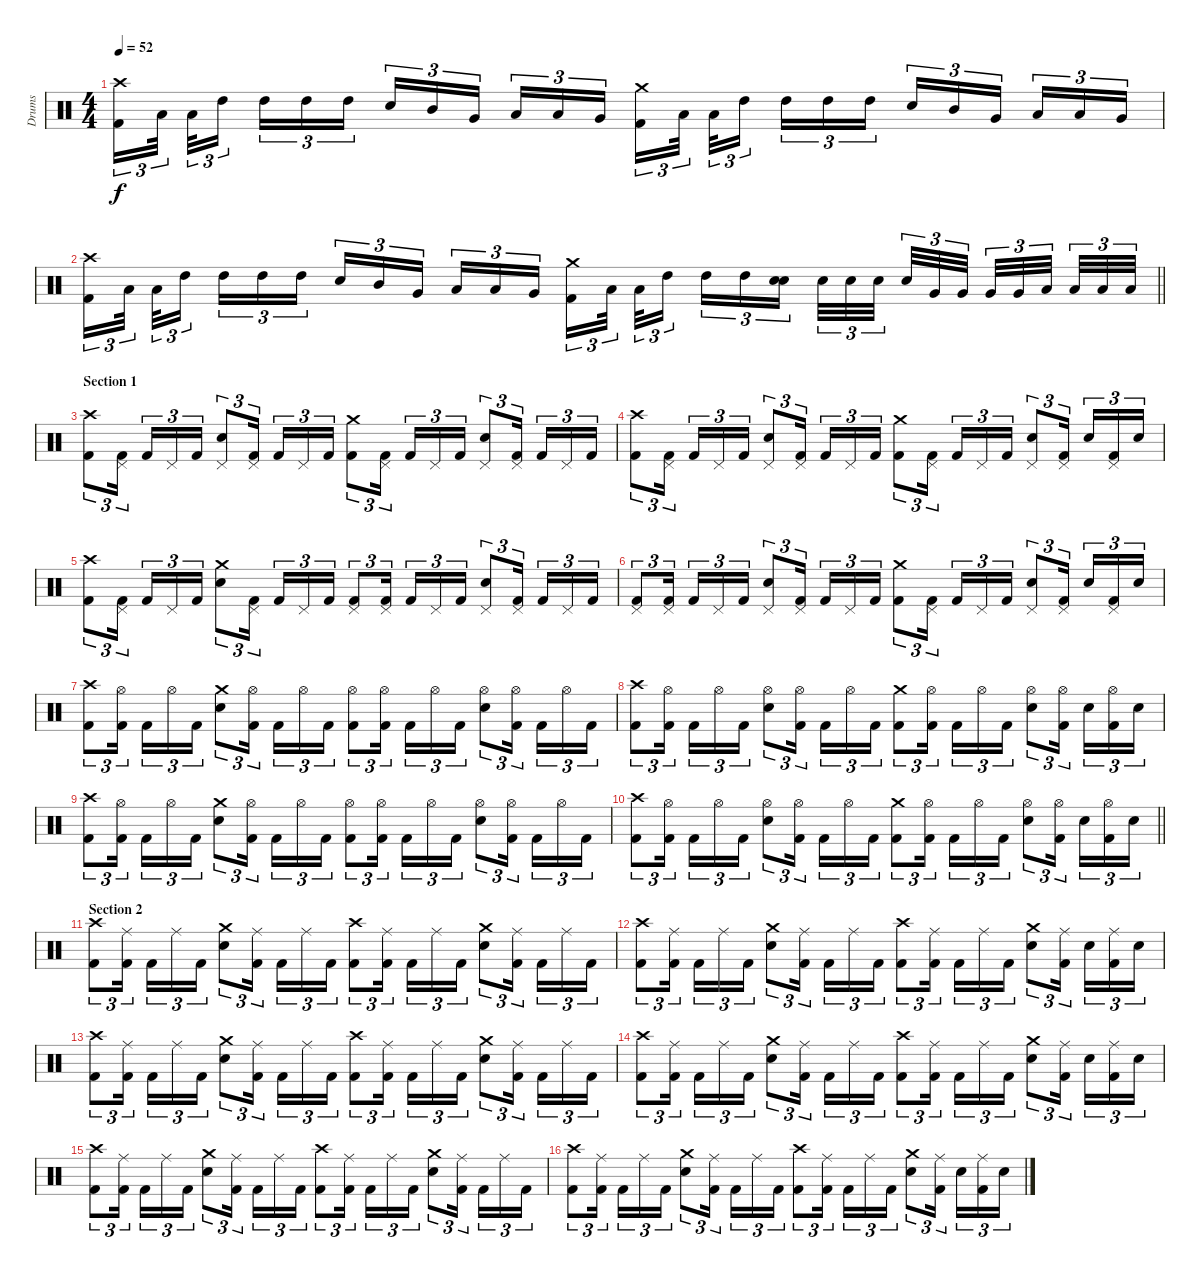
\track ("Drums" "Drums") {instrument percussion}
\staff {score}
\articulation defaults
\ts (4 4)
\tempo 52
\clef neutral
\ks c
("Crash high (hit)" "Kick (hit) 2").16{tu (3 2) dy f} "Low Tom (hit)".32{tu (3 2) beam splitsecondary} "Low Tom (hit)".32{tu (3 2)} "High Tom (hit)".16{tu (3 2) beam splitsecondary} "High Tom (hit)".16{tu (3 2)} "High Tom (hit)".16{tu (3 2)} "High Tom (hit)".16{tu (3 2)} "Electric Snare (hit)".16{tu (3 2)} "Mid Tom (hit)".16{tu (3 2)} "Very Low Tom (hit)".16{tu (3 2) beam splitsecondary} "Low Tom (hit)".16{tu (3 2)} "Low Floor Tom (hit)".16{tu (3 2)} "Very Low Tom (hit)".16{tu (3 2)} ("Crash medium (hit)" "Kick (hit) 2").16{tu (3 2)} "Low Tom (hit)".32{tu (3 2) beam splitsecondary} "Low Tom (hit)".32{tu (3 2)} "High Tom (hit)".16{tu (3 2) beam splitsecondary} "High Tom (hit)".16{tu (3 2)} "High Tom (hit)".16{tu (3 2)} "High Tom (hit)".16{tu (3 2)} "Electric Snare (hit)".16{tu (3 2)} "Mid Tom (hit)".16{tu (3 2)} "Very Low Tom (hit)".16{tu (3 2) beam splitsecondary} "Low Tom (hit)".16{tu (3 2)} "Low Floor Tom (hit)".16{tu (3 2)} "Very Low Tom (hit)".16{tu (3 2)} |
\barLineRight lightlight
("Crash high (hit)" "Kick (hit) 2").16{tu (3 2)} "Low Tom (hit)".32{tu (3 2) beam splitsecondary} "Low Tom (hit)".32{tu (3 2)} "High Tom (hit)".16{tu (3 2) beam splitsecondary} "High Tom (hit)".16{tu (3 2)} "High Tom (hit)".16{tu (3 2)} "High Tom (hit)".16{tu (3 2)} "Electric Snare (hit)".16{tu (3 2)} "Mid Tom (hit)".16{tu (3 2)} "Very Low Tom (hit)".16{tu (3 2) beam splitsecondary} "Low Tom (hit)".16{tu (3 2)} "Low Floor Tom (hit)".16{tu (3 2)} "Very Low Tom (hit)".16{tu (3 2)} ("Crash medium (hit)" "Kick (hit) 2").16{tu (3 2)} "Low Tom (hit)".32{tu (3 2) beam splitsecondary} "Low Tom (hit)".32{tu (3 2)} "High Tom (hit)".16{tu (3 2) beam splitsecondary} "High Tom (hit)".16{tu (3 2)} "High Tom (hit)".16{tu (3 2)} ("Electric Snare (hit)" "Electric Snare (hit)").16{tu (3 2) bd 60} "Electric Snare (hit)".32{tu (3 2)} "Electric Snare (hit)".32{tu (3 2)} "Electric Snare (hit)".32{tu (3 2) beam splitsecondary} "Electric Snare (hit)".32{tu (3 2)} "Very Low Tom (hit)".32{tu (3 2)} "Very Low Tom (hit)".32{tu (3 2) beam splitsecondary} "Very Low Tom (hit)".32{tu (3 2)} "Very Low Tom (hit)".32{tu (3 2)} "Low Floor Tom (hit)".32{tu (3 2) beam splitsecondary} "Low Floor Tom (hit)".32{tu (3 2)} "Low Floor Tom (hit)".32{tu (3 2)} "Low Floor Tom (hit)".32{tu (3 2)} |
\section ("" "Section 1")
("Crash high (hit)" "Kick (hit) 2").8{tu (3 2)} ("Pedal Hi-Hat (hit)" "Kick (hit) 2").16{tu (3 2) beam splitsecondary} "Kick (hit) 2".16{tu (3 2)} "Pedal Hi-Hat (hit)".16{tu (3 2)} "Kick (hit) 2".16{tu (3 2)} ("Pedal Hi-Hat (hit)" "Electric Snare (hit)").8{tu (3 2)} ("Pedal Hi-Hat (hit)" "Kick (hit) 2").16{tu (3 2) beam splitsecondary} "Kick (hit) 2".16{tu (3 2)} "Pedal Hi-Hat (hit)".16{tu (3 2)} "Kick (hit) 2".16{tu (3 2)} ("Crash medium (hit)" "Kick (hit) 2").8{tu (3 2)} ("Pedal Hi-Hat (hit)" "Kick (hit) 2").16{tu (3 2) beam splitsecondary} "Kick (hit) 2".16{tu (3 2)} "Pedal Hi-Hat (hit)".16{tu (3 2)} "Kick (hit) 2".16{tu (3 2)} ("Pedal Hi-Hat (hit)" "Electric Snare (hit)").8{tu (3 2)} ("Pedal Hi-Hat (hit)" "Kick (hit) 2").16{tu (3 2) beam splitsecondary} "Kick (hit) 2".16{tu (3 2)} "Pedal Hi-Hat (hit)".16{tu (3 2)} "Kick (hit) 2".16{tu (3 2)} |
("Crash high (hit)" "Kick (hit) 2").8{tu (3 2)} ("Pedal Hi-Hat (hit)" "Kick (hit) 2").16{tu (3 2) beam splitsecondary} "Kick (hit) 2".16{tu (3 2)} "Pedal Hi-Hat (hit)".16{tu (3 2)} "Kick (hit) 2".16{tu (3 2)} ("Pedal Hi-Hat (hit)" "Electric Snare (hit)").8{tu (3 2)} ("Pedal Hi-Hat (hit)" "Kick (hit) 2").16{tu (3 2) beam splitsecondary} "Kick (hit) 2".16{tu (3 2)} "Pedal Hi-Hat (hit)".16{tu (3 2)} "Kick (hit) 2".16{tu (3 2)} ("Crash medium (hit)" "Kick (hit) 2").8{tu (3 2)} ("Pedal Hi-Hat (hit)" "Kick (hit) 2").16{tu (3 2) beam splitsecondary} "Kick (hit) 2".16{tu (3 2)} "Pedal Hi-Hat (hit)".16{tu (3 2)} "Kick (hit) 2".16{tu (3 2)} ("Pedal Hi-Hat (hit)" "Electric Snare (hit)").8{tu (3 2)} ("Pedal Hi-Hat (hit)" "Kick (hit) 2").16{tu (3 2) beam splitsecondary} "Electric Snare (hit)".16{tu (3 2)} ("Pedal Hi-Hat (hit)" "Kick (hit) 2").16{tu (3 2)} "Electric Snare (hit)".16{tu (3 2)} |
("Crash high (hit)" "Kick (hit) 2").8{tu (3 2)} ("Pedal Hi-Hat (hit)" "Kick (hit) 2").16{tu (3 2) beam splitsecondary} "Kick (hit) 2".16{tu (3 2)} "Pedal Hi-Hat (hit)".16{tu (3 2)} "Kick (hit) 2".16{tu (3 2)} ("Crash medium (hit)" "Electric Snare (hit)").8{tu (3 2)} ("Pedal Hi-Hat (hit)" "Kick (hit) 2").16{tu (3 2) beam splitsecondary} "Kick (hit) 2".16{tu (3 2)} "Pedal Hi-Hat (hit)".16{tu (3 2)} "Kick (hit) 2".16{tu (3 2)} ("Pedal Hi-Hat (hit)" "Kick (hit) 2").8{tu (3 2)} ("Pedal Hi-Hat (hit)" "Kick (hit) 2").16{tu (3 2) beam splitsecondary} "Kick (hit) 2".16{tu (3 2)} "Pedal Hi-Hat (hit)".16{tu (3 2)} "Kick (hit) 2".16{tu (3 2)} ("Pedal Hi-Hat (hit)" "Electric Snare (hit)").8{tu (3 2)} ("Pedal Hi-Hat (hit)" "Kick (hit) 2").16{tu (3 2) beam splitsecondary} "Kick (hit) 2".16{tu (3 2)} "Pedal Hi-Hat (hit)".16{tu (3 2)} "Kick (hit) 2".16{tu (3 2)} |
("Pedal Hi-Hat (hit)" "Kick (hit) 2").8{tu (3 2)} ("Pedal Hi-Hat (hit)" "Kick (hit) 2").16{tu (3 2) beam splitsecondary} "Kick (hit) 2".16{tu (3 2)} "Pedal Hi-Hat (hit)".16{tu (3 2)} "Kick (hit) 2".16{tu (3 2)} ("Pedal Hi-Hat (hit)" "Electric Snare (hit)").8{tu (3 2)} ("Pedal Hi-Hat (hit)" "Kick (hit) 2").16{tu (3 2) beam splitsecondary} "Kick (hit) 2".16{tu (3 2)} "Pedal Hi-Hat (hit)".16{tu (3 2)} "Kick (hit) 2".16{tu (3 2)} ("Crash medium (hit)" "Kick (hit) 2").8{tu (3 2)} ("Pedal Hi-Hat (hit)" "Kick (hit) 2").16{tu (3 2) beam splitsecondary} "Kick (hit) 2".16{tu (3 2)} "Pedal Hi-Hat (hit)".16{tu (3 2)} "Kick (hit) 2".16{tu (3 2)} ("Pedal Hi-Hat (hit)" "Electric Snare (hit)").8{tu (3 2)} ("Pedal Hi-Hat (hit)" "Kick (hit) 2").16{tu (3 2) beam splitsecondary} "Electric Snare (hit)".16{tu (3 2)} ("Pedal Hi-Hat (hit)" "Kick (hit) 2").16{tu (3 2)} "Electric Snare (hit)".16{tu (3 2)} |
("Crash high (hit)" "Kick (hit) 2").8{tu (3 2)} ("Hi-Hat (open)" "Kick (hit) 2").16{tu (3 2) beam splitsecondary} "Kick (hit) 2".16{tu (3 2)} "Hi-Hat (open)".16{tu (3 2)} "Kick (hit) 2".16{tu (3 2)} ("Crash medium (hit)" "Electric Snare (hit)").8{tu (3 2)} ("Hi-Hat (open)" "Kick (hit) 2").16{tu (3 2) beam splitsecondary} "Kick (hit) 2".16{tu (3 2)} "Hi-Hat (open)".16{tu (3 2)} "Kick (hit) 2".16{tu (3 2)} ("Hi-Hat (open)" "Kick (hit) 2").8{tu (3 2)} ("Hi-Hat (open)" "Kick (hit) 2").16{tu (3 2) beam splitsecondary} "Kick (hit) 2".16{tu (3 2)} "Hi-Hat (open)".16{tu (3 2)} "Kick (hit) 2".16{tu (3 2)} ("Hi-Hat (open)" "Electric Snare (hit)").8{tu (3 2)} ("Hi-Hat (open)" "Kick (hit) 2").16{tu (3 2) beam splitsecondary} "Kick (hit) 2".16{tu (3 2)} "Hi-Hat (open)".16{tu (3 2)} "Kick (hit) 2".16{tu (3 2)} |
("Crash high (hit)" "Kick (hit) 2").8{tu (3 2)} ("Hi-Hat (open)" "Kick (hit) 2").16{tu (3 2) beam splitsecondary} "Kick (hit) 2".16{tu (3 2)} "Hi-Hat (open)".16{tu (3 2)} "Kick (hit) 2".16{tu (3 2)} ("Hi-Hat (open)" "Electric Snare (hit)").8{tu (3 2)} ("Hi-Hat (open)" "Kick (hit) 2").16{tu (3 2) beam splitsecondary} "Kick (hit) 2".16{tu (3 2)} "Hi-Hat (open)".16{tu (3 2)} "Kick (hit) 2".16{tu (3 2)} ("Crash medium (hit)" "Kick (hit) 2").8{tu (3 2)} ("Hi-Hat (open)" "Kick (hit) 2").16{tu (3 2) beam splitsecondary} "Kick (hit) 2".16{tu (3 2)} "Hi-Hat (open)".16{tu (3 2)} "Kick (hit) 2".16{tu (3 2)} ("Hi-Hat (open)" "Electric Snare (hit)").8{tu (3 2)} ("Hi-Hat (open)" "Kick (hit) 2").16{tu (3 2) beam splitsecondary} "Electric Snare (hit)".16{tu (3 2)} ("Hi-Hat (open)" "Kick (hit) 2").16{tu (3 2)} "Electric Snare (hit)".16{tu (3 2)} |
("Crash high (hit)" "Kick (hit) 2").8{tu (3 2)} ("Hi-Hat (open)" "Kick (hit) 2").16{tu (3 2) beam splitsecondary} "Kick (hit) 2".16{tu (3 2)} "Hi-Hat (open)".16{tu (3 2)} "Kick (hit) 2".16{tu (3 2)} ("Crash medium (hit)" "Electric Snare (hit)").8{tu (3 2)} ("Hi-Hat (open)" "Kick (hit) 2").16{tu (3 2) beam splitsecondary} "Kick (hit) 2".16{tu (3 2)} "Hi-Hat (open)".16{tu (3 2)} "Kick (hit) 2".16{tu (3 2)} ("Hi-Hat (open)" "Kick (hit) 2").8{tu (3 2)} ("Hi-Hat (open)" "Kick (hit) 2").16{tu (3 2) beam splitsecondary} "Kick (hit) 2".16{tu (3 2)} "Hi-Hat (open)".16{tu (3 2)} "Kick (hit) 2".16{tu (3 2)} ("Hi-Hat (open)" "Electric Snare (hit)").8{tu (3 2)} ("Hi-Hat (open)" "Kick (hit) 2").16{tu (3 2) beam splitsecondary} "Kick (hit) 2".16{tu (3 2)} "Hi-Hat (open)".16{tu (3 2)} "Kick (hit) 2".16{tu (3 2)} |
\barLineRight lightlight
("Crash high (hit)" "Kick (hit) 2").8{tu (3 2)} ("Hi-Hat (open)" "Kick (hit) 2").16{tu (3 2) beam splitsecondary} "Kick (hit) 2".16{tu (3 2)} "Hi-Hat (open)".16{tu (3 2)} "Kick (hit) 2".16{tu (3 2)} ("Hi-Hat (open)" "Electric Snare (hit)").8{tu (3 2)} ("Hi-Hat (open)" "Kick (hit) 2").16{tu (3 2) beam splitsecondary} "Kick (hit) 2".16{tu (3 2)} "Hi-Hat (open)".16{tu (3 2)} "Kick (hit) 2".16{tu (3 2)} ("Crash medium (hit)" "Kick (hit) 2").8{tu (3 2)} ("Hi-Hat (open)" "Kick (hit) 2").16{tu (3 2) beam splitsecondary} "Kick (hit) 2".16{tu (3 2)} "Hi-Hat (open)".16{tu (3 2)} "Kick (hit) 2".16{tu (3 2)} ("Hi-Hat (open)" "Electric Snare (hit)").8{tu (3 2)} ("Hi-Hat (open)" "Kick (hit) 2").16{tu (3 2) beam splitsecondary} "Electric Snare (hit)".16{tu (3 2)} ("Hi-Hat (open)" "Kick (hit) 2").16{tu (3 2)} "Electric Snare (hit)".16{tu (3 2)} |
\section ("" "Section 2")
("Crash high (hit)" "Kick (hit) 2").8{tu (3 2)} ("Ride (middle)" "Kick (hit) 2").16{tu (3 2) beam splitsecondary} "Kick (hit) 2".16{tu (3 2)} "Ride (middle)".16{tu (3 2)} "Kick (hit) 2".16{tu (3 2)} ("Crash medium (hit)" "Electric Snare (hit)").8{tu (3 2)} ("Ride (middle)" "Kick (hit) 2").16{tu (3 2) beam splitsecondary} "Kick (hit) 2".16{tu (3 2)} "Ride (middle)".16{tu (3 2)} "Kick (hit) 2".16{tu (3 2)} ("Crash high (hit)" "Kick (hit) 2").8{tu (3 2)} ("Ride (middle)" "Kick (hit) 2").16{tu (3 2) beam splitsecondary} "Kick (hit) 2".16{tu (3 2)} "Ride (middle)".16{tu (3 2)} "Kick (hit) 2".16{tu (3 2)} ("Crash medium (hit)" "Electric Snare (hit)").8{tu (3 2)} ("Ride (middle)" "Kick (hit) 2").16{tu (3 2) beam splitsecondary} "Kick (hit) 2".16{tu (3 2)} "Ride (middle)".16{tu (3 2)} "Kick (hit) 2".16{tu (3 2)} |
("Crash high (hit)" "Kick (hit) 2").8{tu (3 2)} ("Ride (middle)" "Kick (hit) 2").16{tu (3 2) beam splitsecondary} "Kick (hit) 2".16{tu (3 2)} "Ride (middle)".16{tu (3 2)} "Kick (hit) 2".16{tu (3 2)} ("Crash medium (hit)" "Electric Snare (hit)").8{tu (3 2)} ("Ride (middle)" "Kick (hit) 2").16{tu (3 2) beam splitsecondary} "Kick (hit) 2".16{tu (3 2)} "Ride (middle)".16{tu (3 2)} "Kick (hit) 2".16{tu (3 2)} ("Crash high (hit)" "Kick (hit) 2").8{tu (3 2)} ("Ride (middle)" "Kick (hit) 2").16{tu (3 2) beam splitsecondary} "Kick (hit) 2".16{tu (3 2)} "Ride (middle)".16{tu (3 2)} "Kick (hit) 2".16{tu (3 2)} ("Crash medium (hit)" "Electric Snare (hit)").8{tu (3 2)} ("Ride (middle)" "Kick (hit) 2").16{tu (3 2) beam splitsecondary} "Electric Snare (hit)".16{tu (3 2)} ("Ride (middle)" "Kick (hit) 2").16{tu (3 2)} "Electric Snare (hit)".16{tu (3 2)} |
("Crash high (hit)" "Kick (hit) 2").8{tu (3 2)} ("Ride (middle)" "Kick (hit) 2").16{tu (3 2) beam splitsecondary} "Kick (hit) 2".16{tu (3 2)} "Ride (middle)".16{tu (3 2)} "Kick (hit) 2".16{tu (3 2)} ("Crash medium (hit)" "Electric Snare (hit)").8{tu (3 2)} ("Ride (middle)" "Kick (hit) 2").16{tu (3 2) beam splitsecondary} "Kick (hit) 2".16{tu (3 2)} "Ride (middle)".16{tu (3 2)} "Kick (hit) 2".16{tu (3 2)} ("Crash high (hit)" "Kick (hit) 2").8{tu (3 2)} ("Ride (middle)" "Kick (hit) 2").16{tu (3 2) beam splitsecondary} "Kick (hit) 2".16{tu (3 2)} "Ride (middle)".16{tu (3 2)} "Kick (hit) 2".16{tu (3 2)} ("Crash medium (hit)" "Electric Snare (hit)").8{tu (3 2)} ("Ride (middle)" "Kick (hit) 2").16{tu (3 2) beam splitsecondary} "Kick (hit) 2".16{tu (3 2)} "Ride (middle)".16{tu (3 2)} "Kick (hit) 2".16{tu (3 2)} |
("Crash high (hit)" "Kick (hit) 2").8{tu (3 2)} ("Ride (middle)" "Kick (hit) 2").16{tu (3 2) beam splitsecondary} "Kick (hit) 2".16{tu (3 2)} "Ride (middle)".16{tu (3 2)} "Kick (hit) 2".16{tu (3 2)} ("Crash medium (hit)" "Electric Snare (hit)").8{tu (3 2)} ("Ride (middle)" "Kick (hit) 2").16{tu (3 2) beam splitsecondary} "Kick (hit) 2".16{tu (3 2)} "Ride (middle)".16{tu (3 2)} "Kick (hit) 2".16{tu (3 2)} ("Crash high (hit)" "Kick (hit) 2").8{tu (3 2)} ("Ride (middle)" "Kick (hit) 2").16{tu (3 2) beam splitsecondary} "Kick (hit) 2".16{tu (3 2)} "Ride (middle)".16{tu (3 2)} "Kick (hit) 2".16{tu (3 2)} ("Crash medium (hit)" "Electric Snare (hit)").8{tu (3 2)} ("Ride (middle)" "Kick (hit) 2").16{tu (3 2) beam splitsecondary} "Electric Snare (hit)".16{tu (3 2)} ("Ride (middle)" "Kick (hit) 2").16{tu (3 2)} "Electric Snare (hit)".16{tu (3 2)} |
("Crash high (hit)" "Kick (hit) 2").8{tu (3 2)} ("Ride (middle)" "Kick (hit) 2").16{tu (3 2) beam splitsecondary} "Kick (hit) 2".16{tu (3 2)} "Ride (middle)".16{tu (3 2)} "Kick (hit) 2".16{tu (3 2)} ("Crash medium (hit)" "Electric Snare (hit)").8{tu (3 2)} ("Ride (middle)" "Kick (hit) 2").16{tu (3 2) beam splitsecondary} "Kick (hit) 2".16{tu (3 2)} "Ride (middle)".16{tu (3 2)} "Kick (hit) 2".16{tu (3 2)} ("Crash high (hit)" "Kick (hit) 2").8{tu (3 2)} ("Ride (middle)" "Kick (hit) 2").16{tu (3 2) beam splitsecondary} "Kick (hit) 2".16{tu (3 2)} "Ride (middle)".16{tu (3 2)} "Kick (hit) 2".16{tu (3 2)} ("Crash medium (hit)" "Electric Snare (hit)").8{tu (3 2)} ("Ride (middle)" "Kick (hit) 2").16{tu (3 2) beam splitsecondary} "Kick (hit) 2".16{tu (3 2)} "Ride (middle)".16{tu (3 2)} "Kick (hit) 2".16{tu (3 2)} |
("Crash high (hit)" "Kick (hit) 2").8{tu (3 2)} ("Ride (middle)" "Kick (hit) 2").16{tu (3 2) beam splitsecondary} "Kick (hit) 2".16{tu (3 2)} "Ride (middle)".16{tu (3 2)} "Kick (hit) 2".16{tu (3 2)} ("Crash medium (hit)" "Electric Snare (hit)").8{tu (3 2)} ("Ride (middle)" "Kick (hit) 2").16{tu (3 2) beam splitsecondary} "Kick (hit) 2".16{tu (3 2)} "Ride (middle)".16{tu (3 2)} "Kick (hit) 2".16{tu (3 2)} ("Crash high (hit)" "Kick (hit) 2").8{tu (3 2)} ("Ride (middle)" "Kick (hit) 2").16{tu (3 2) beam splitsecondary} "Kick (hit) 2".16{tu (3 2)} "Ride (middle)".16{tu (3 2)} "Kick (hit) 2".16{tu (3 2)} ("Crash medium (hit)" "Electric Snare (hit)").8{tu (3 2)} ("Ride (middle)" "Kick (hit) 2").16{tu (3 2) beam splitsecondary} "Electric Snare (hit)".16{tu (3 2)} ("Ride (middle)" "Kick (hit) 2").16{tu (3 2)} "Electric Snare (hit)".16{tu (3 2)}
